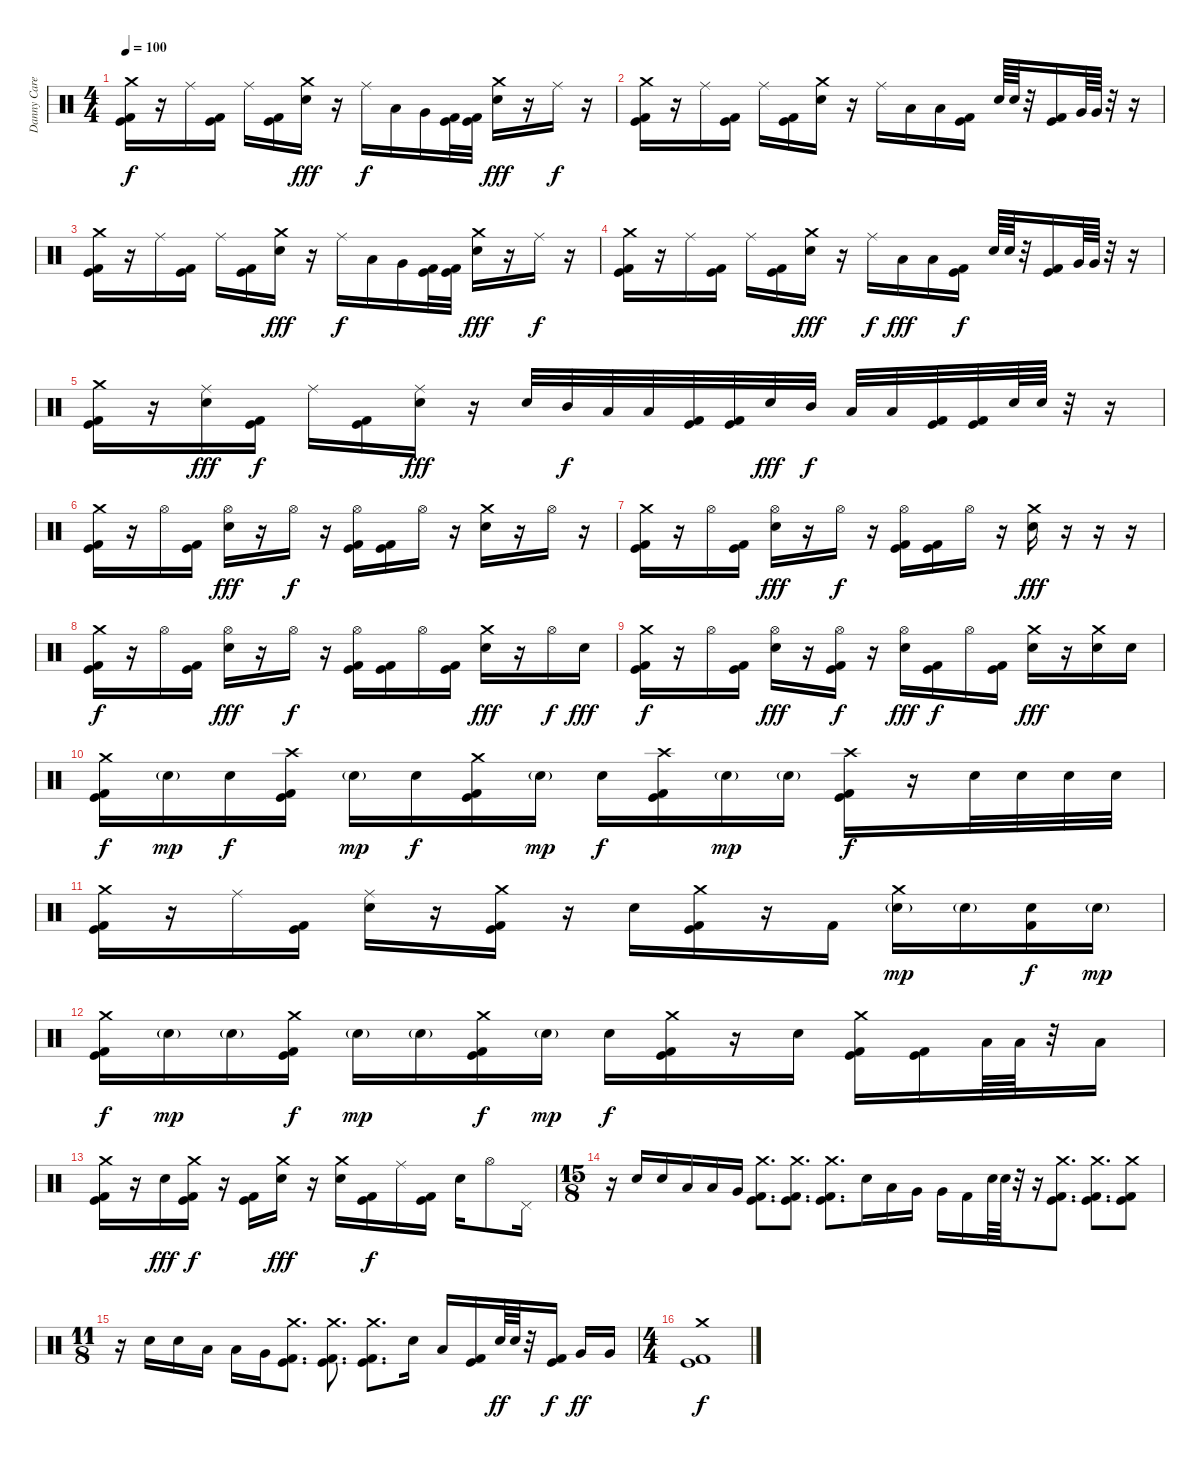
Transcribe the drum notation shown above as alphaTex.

\track ("Danny Carey" "Danny Care") {instrument percussion}
\staff {score}
\articulation defaults
\ts (4 4)
\tempo 100
\clef neutral
\ks c
("Crash medium (hit)" "Kick (hit)" "Kick (hit) 2").16{dy f} r.16 "Ride (middle)".16 ("Kick (hit)" "Kick (hit) 2").16 "Ride (middle)".16 ("Kick (hit)" "Kick (hit) 2").16 ("Crash medium (hit)" "Electric Snare (hit)").16{dy fff} r.16 "Ride (middle)".16{dy f} "Low Tom (hit)".16 "Very Low Tom (hit)".16 ("Kick (hit)" "Kick (hit) 2").32 ("Kick (hit)" "Kick (hit) 2").32 ("Crash medium (hit)" "Electric Snare (hit)").16{dy fff} r.16 "Ride (middle)".16{dy f} r.16 |
("Crash medium (hit)" "Kick (hit)" "Kick (hit) 2").16 r.16 "Ride (middle)".16 ("Kick (hit)" "Kick (hit) 2").16 "Ride (middle)".16 ("Kick (hit)" "Kick (hit) 2").16 ("Crash medium (hit)" "Electric Snare (hit)").16 r.16 "Ride (middle)".16 "Low Tom (hit)".16 "Low Tom (hit)".16 ("Kick (hit)" "Kick (hit) 2").16 "Electric Snare (hit)".64 "Electric Snare (hit)".64 r.32 ("Kick (hit)" "Kick (hit) 2").16 "Very Low Tom (hit)".64 "Very Low Tom (hit)".64 r.32 r.16 |
("Crash medium (hit)" "Kick (hit)" "Kick (hit) 2").16 r.16 "Ride (middle)".16 ("Kick (hit)" "Kick (hit) 2").16 "Ride (middle)".16 ("Kick (hit)" "Kick (hit) 2").16 ("Crash medium (hit)" "Electric Snare (hit)").16{dy fff} r.16 "Ride (middle)".16{dy f} "Low Tom (hit)".16 "Very Low Tom (hit)".16 ("Kick (hit)" "Kick (hit) 2").32 ("Kick (hit)" "Kick (hit) 2").32 ("Crash medium (hit)" "Electric Snare (hit)").16{dy fff} r.16 "Ride (middle)".16{dy f} r.16 |
("Crash medium (hit)" "Kick (hit)" "Kick (hit) 2").16 r.16 "Ride (middle)".16 ("Kick (hit)" "Kick (hit) 2").16 "Ride (middle)".16 ("Kick (hit)" "Kick (hit) 2").16 ("Crash medium (hit)" "Electric Snare (hit)").16{dy fff} r.16 "Ride (middle)".16{dy f} "Low Tom (hit)".16{dy fff} "Low Tom (hit)".16 ("Kick (hit)" "Kick (hit) 2").16{dy f} "Electric Snare (hit)".64 "Electric Snare (hit)".64 r.32 ("Kick (hit)" "Kick (hit) 2").16 "Very Low Tom (hit)".64 "Very Low Tom (hit)".64 r.32 r.16 |
("Crash medium (hit)" "Kick (hit)" "Kick (hit) 2").16 r.16 ("Ride (middle)" "Electric Snare (hit)").16{dy fff} ("Kick (hit)" "Kick (hit) 2").16{dy f} "Ride (middle)".16 ("Kick (hit)" "Kick (hit) 2").16 ("Ride (middle)" "Electric Snare (hit)").16{dy fff} r.16 "Electric Snare (hit)".32 "Mid Tom (hit)".32{dy f} "Low Tom (hit)".32 "Low Tom (hit)".32 ("Kick (hit)" "Kick (hit) 2").32 ("Kick (hit)" "Kick (hit) 2").32 "Electric Snare (hit)".32{dy fff} "Mid Tom (hit)".32{dy f} "Low Tom (hit)".32 "Low Tom (hit)".32 ("Kick (hit)" "Kick (hit) 2").32 ("Kick (hit)" "Kick (hit) 2").32 "Electric Snare (hit)".64 "Electric Snare (hit)".64 r.32 r.16 |
("Crash medium (hit)" "Kick (hit)" "Kick (hit) 2").16 r.16 "Hi-Hat (open)".16 ("Kick (hit)" "Kick (hit) 2").16 ("Hi-Hat (open)" "Electric Snare (hit)").16{dy fff} r.16 "Hi-Hat (open)".16{dy f} r.16 ("Hi-Hat (open)" "Kick (hit)" "Kick (hit) 2").16 ("Kick (hit)" "Kick (hit) 2").16 "Hi-Hat (open)".16 r.16 ("Crash medium (hit)" "Electric Snare (hit)").16 r.16 "Hi-Hat (open)".16 r.16 |
("Crash medium (hit)" "Kick (hit)" "Kick (hit) 2").16 r.16 "Hi-Hat (open)".16 ("Kick (hit)" "Kick (hit) 2").16 ("Hi-Hat (open)" "Electric Snare (hit)").16{dy fff} r.16 "Hi-Hat (open)".16{dy f} r.16 ("Hi-Hat (open)" "Kick (hit)" "Kick (hit) 2").16 ("Kick (hit)" "Kick (hit) 2").16 "Hi-Hat (open)".16 r.16 ("Crash medium (hit)" "Electric Snare (hit)").16{dy fff} r.16 r.16 r.16 |
("Crash medium (hit)" "Kick (hit)" "Kick (hit) 2").16{dy f} r.16 "Hi-Hat (open)".16 ("Kick (hit)" "Kick (hit) 2").16 ("Hi-Hat (open)" "Electric Snare (hit)").16{dy fff} r.16 "Hi-Hat (open)".16{dy f} r.16 ("Hi-Hat (open)" "Kick (hit)" "Kick (hit) 2").16 ("Kick (hit)" "Kick (hit) 2").16 "Hi-Hat (open)".16 ("Kick (hit)" "Kick (hit) 2").16 ("Crash medium (hit)" "Electric Snare (hit)").16{dy fff} r.16 "Hi-Hat (open)".16{dy f} "Electric Snare (hit)".16{dy fff} |
("Crash medium (hit)" "Kick (hit)" "Kick (hit) 2").16{dy f} r.16 "Hi-Hat (open)".16 ("Kick (hit)" "Kick (hit) 2").16 ("Hi-Hat (open)" "Electric Snare (hit)").16{dy fff} r.16 ("Hi-Hat (open)" "Kick (hit)" "Kick (hit) 2").16{dy f} r.16 ("Hi-Hat (open)" "Electric Snare (hit)").16{dy fff} ("Kick (hit)" "Kick (hit) 2").16{dy f} "Hi-Hat (open)".16 ("Kick (hit)" "Kick (hit) 2").16 ("Crash medium (hit)" "Electric Snare (hit)").16{dy fff} r.16 ("Crash medium (hit)" "Electric Snare (hit)").16 "Electric Snare (hit)".16 |
("Crash medium (hit)" "Kick (hit)" "Kick (hit) 2").16{dy f} "Electric Snare (hit)"{g}.16{dy mp} "Electric Snare (hit)".16{dy f} ("Crash high (hit)" "Kick (hit)" "Kick (hit) 2").16 "Electric Snare (hit)"{g}.16{dy mp} "Electric Snare (hit)".16{dy f} ("Crash medium (hit)" "Kick (hit)" "Kick (hit) 2").16 "Electric Snare (hit)"{g}.16{dy mp} "Electric Snare (hit)".16{dy f} ("Crash high (hit)" "Kick (hit)" "Kick (hit) 2").16 "Electric Snare (hit)"{g}.16{dy mp} "Electric Snare (hit)"{g}.16 ("Crash high (hit)" "Kick (hit)" "Kick (hit) 2").16{dy f} r.16 "Electric Snare (hit)".32 "Electric Snare (hit)".32 "Electric Snare (hit)".32 "Electric Snare (hit)".32 |
("Crash medium (hit)" "Kick (hit)" "Kick (hit) 2").16 r.16 "Ride (middle)".16 ("Kick (hit)" "Kick (hit) 2").16 ("Ride (middle)" "Electric Snare (hit)").16 r.16 ("Crash medium (hit)" "Kick (hit)" "Kick (hit) 2").16 r.16 "Electric Snare (hit)".16 ("Crash medium (hit)" "Kick (hit)" "Kick (hit) 2").16 r.16 "Kick (hit) 2".16 ("Crash medium (hit)" "Electric Snare (hit)"{g}).16{dy mp} "Electric Snare (hit)"{g}.16 ("Electric Snare (hit)" "Kick (hit) 2").16{dy f} "Electric Snare (hit)"{g}.16{dy mp} |
("Crash medium (hit)" "Kick (hit)" "Kick (hit) 2").16{dy f} "Electric Snare (hit)"{g}.16{dy mp} "Electric Snare (hit)"{g}.16 ("Crash medium (hit)" "Kick (hit)" "Kick (hit) 2").16{dy f} "Electric Snare (hit)"{g}.16{dy mp} "Electric Snare (hit)"{g}.16 ("Crash medium (hit)" "Kick (hit)" "Kick (hit) 2").16{dy f} "Electric Snare (hit)"{g}.16{dy mp} "Electric Snare (hit)".16{dy f} ("Crash medium (hit)" "Kick (hit)" "Kick (hit) 2").16 r.16 "Electric Snare (hit)".16 ("Crash medium (hit)" "Kick (hit)" "Kick (hit) 2").16 ("Kick (hit)" "Kick (hit) 2").16 "Low Tom (hit)".64 "Low Tom (hit)".64 r.32 "Low Tom (hit)".16 |
("Crash medium (hit)" "Kick (hit)" "Kick (hit) 2").16 r.16 "Electric Snare (hit)".16{dy fff} ("Crash medium (hit)" "Kick (hit)" "Kick (hit) 2").16{dy f} r.16 ("Kick (hit)" "Kick (hit) 2").16 ("Crash medium (hit)" "Electric Snare (hit)").16{dy fff} r.16 ("Crash medium (hit)" "Electric Snare (hit)").16 ("Kick (hit)" "Kick (hit) 2").16{dy f} "Ride (middle)".16 ("Kick (hit)" "Kick (hit) 2").16 "Electric Snare (hit)".16 "Hi-Hat (open)".8 "Pedal Hi-Hat (hit)".16 |
\ts (15 8)
r.16 "Electric Snare (hit)".16 "Electric Snare (hit)".16 "Low Tom (hit)".16 "Low Tom (hit)".16 "Very Low Tom (hit)".16 ("Crash medium (hit)" "Kick (hit)" "Kick (hit) 2").8{d} ("Crash medium (hit)" "Kick (hit)" "Kick (hit) 2").8{d} ("Crash medium (hit)" "Kick (hit)" "Kick (hit) 2").8{d} "Electric Snare (hit)".16 "Low Tom (hit)".16 "Very Low Tom (hit)".16 "Very Low Tom (hit)".16 "Kick (hit) 2".16 "Electric Snare (hit)".64 "Electric Snare (hit)".64 r.32 r.16 ("Crash medium (hit)" "Kick (hit)" "Kick (hit) 2").8{d} ("Crash medium (hit)" "Kick (hit)" "Kick (hit) 2").8{d} ("Crash medium (hit)" "Kick (hit)" "Kick (hit) 2").8 |
\ts (11 8)
r.16 "Electric Snare (hit)".16 "Electric Snare (hit)".16 "Low Tom (hit)".16 "Low Tom (hit)".16 "Very Low Tom (hit)".16 ("Crash medium (hit)" "Kick (hit)" "Kick (hit) 2").8{d} ("Crash medium (hit)" "Kick (hit)" "Kick (hit) 2").8{d} ("Crash medium (hit)" "Kick (hit)" "Kick (hit) 2").8{d} "Electric Snare (hit)".16 "Low Tom (hit)".16 ("Kick (hit)" "Kick (hit) 2").16 "Electric Snare (hit)".64{dy ff} "Electric Snare (hit)".64 r.32 ("Kick (hit)" "Kick (hit) 2").16{dy f} "Very Low Tom (hit)".16{dy ff} "Very Low Tom (hit)".16 |
\ts (4 4)
("Crash medium (hit)" "Kick (hit)" "Kick (hit) 2").1{dy f}
